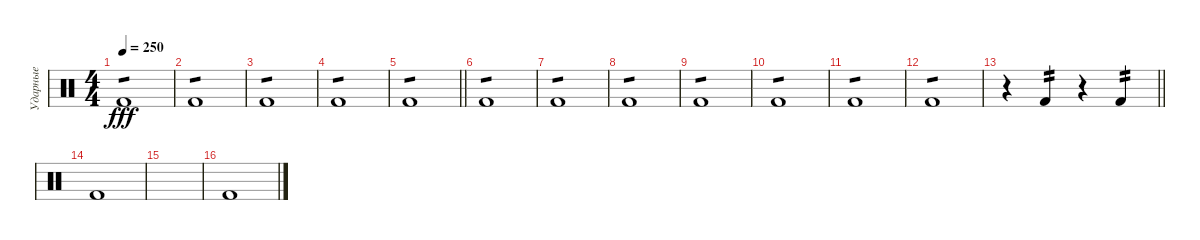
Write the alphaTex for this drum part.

\track ("Ударные" "Ударные") {instrument percussion}
\staff {score}
\articulation defaults
\ts (4 4)
\tempo 250
\clef neutral
\ks c "Kick (hit) 2".1{tp 1 dy fff}
|
"Kick (hit) 2".1{tp 1} |
"Kick (hit) 2".1{tp 1} |
"Kick (hit) 2".1{tp 1} |
\barLineRight lightlight "Kick (hit) 2".1{tp 1}
|
"Kick (hit) 2".1{tp 1} |
"Kick (hit) 2".1{tp 1} |
"Kick (hit) 2".1{tp 1} |
"Kick (hit) 2".1{tp 1} |
"Kick (hit) 2".1{tp 1} |
"Kick (hit) 2".1{tp 1} |
"Kick (hit) 2".1{tp 1} |
\barLineRight lightlight
r.4 "Kick (hit) 2".4{tp 2} r.4 "Kick (hit) 2".4{tp 2} |
"Kick (hit) 2".1 |
|
"Kick (hit) 2".1
